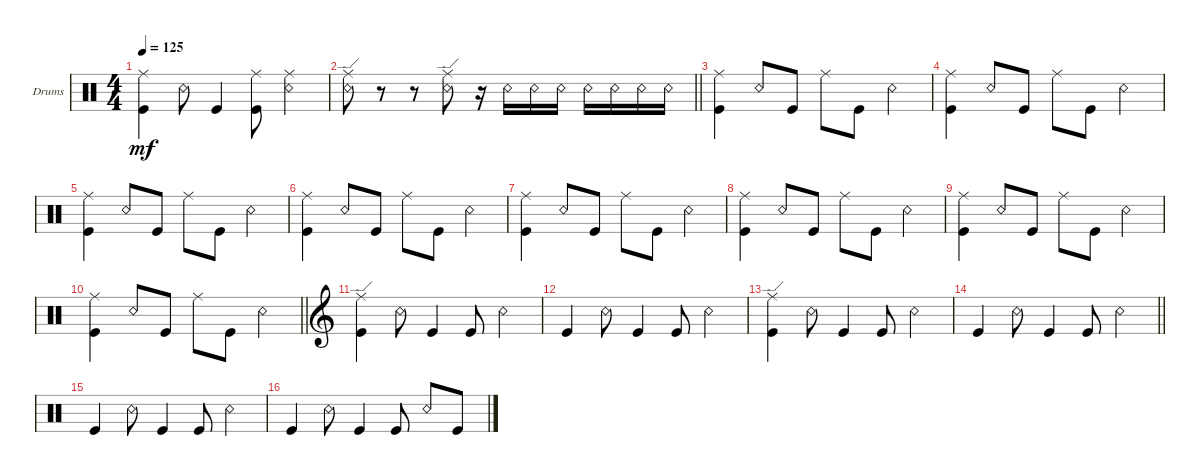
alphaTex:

\defaultSystemsLayout 4
\bracketExtendMode groupsimilarinstruments
\firstSystemTrackNameOrientation horizontal
\otherSystemsTrackNameOrientation horizontal
\track ("Drumkit" "Drums") {instrument percussion}
\staff {score}
\articulation defaults
\ts (4 4)
\tempo 125
\clef neutral
\ks c
("Kick (hit)" "Ride (middle)").4{dy mf} "Snare (rim shot)".8 "Kick (hit)".4 ("Kick (hit)" "Ride (middle)").8 ("Snare (rim shot)" "Ride (middle)").4 |
\barLineRight lightlight
("Snare (rim shot)" "Ride (edge)").8 r.8 r.8 ("Snare (rim shot)" "Ride (edge)").8 r.16 "Snare (rim shot)".16 "Snare (rim shot)".16 "Snare (rim shot)".16 "Snare (rim shot)".16 "Snare (rim shot)".16 "Snare (rim shot)".16 "Snare (rim shot)".16 |
("Kick (hit)" "Ride (middle)").4 "Snare (rim shot)".8 "Kick (hit)".8 "Ride (middle)".8 "Kick (hit)".8 "Snare (rim shot)".4 |
("Kick (hit)" "Ride (middle)").4 "Snare (rim shot)".8 "Kick (hit)".8 "Ride (middle)".8 "Kick (hit)".8 "Snare (rim shot)".4 |
("Kick (hit)" "Ride (middle)").4 "Snare (rim shot)".8 "Kick (hit)".8 "Ride (middle)".8 "Kick (hit)".8 "Snare (rim shot)".4 |
("Kick (hit)" "Ride (middle)").4 "Snare (rim shot)".8 "Kick (hit)".8 "Ride (middle)".8 "Kick (hit)".8 "Snare (rim shot)".4 |
("Kick (hit)" "Ride (middle)").4 "Snare (rim shot)".8 "Kick (hit)".8 "Ride (middle)".8 "Kick (hit)".8 "Snare (rim shot)".4 |
("Kick (hit)" "Ride (middle)").4 "Snare (rim shot)".8 "Kick (hit)".8 "Ride (middle)".8 "Kick (hit)".8 "Snare (rim shot)".4 |
("Kick (hit)" "Ride (middle)").4 "Snare (rim shot)".8 "Kick (hit)".8 "Ride (middle)".8 "Kick (hit)".8 "Snare (rim shot)".4 |
\barLineRight lightlight
("Kick (hit)" "Ride (middle)").4 "Snare (rim shot)".8 "Kick (hit)".8 "Ride (middle)".8 "Kick (hit)".8 "Snare (rim shot)".4 |
\clef g2
("Kick (hit)" "Ride (edge)").4 "Snare (rim shot)".8 "Kick (hit)".4 "Kick (hit)".8 "Snare (rim shot)".4 |
"Kick (hit)".4 "Snare (rim shot)".8 "Kick (hit)".4 "Kick (hit)".8 "Snare (rim shot)".4 |
("Kick (hit)" "Ride (edge)").4 "Snare (rim shot)".8 "Kick (hit)".4 "Kick (hit)".8 "Snare (rim shot)".4 |
\barLineRight lightlight "Kick (hit)".4 "Snare (rim shot)".8 "Kick (hit)".4 "Kick (hit)".8 "Snare (rim shot)".4
|
\clef neutral "Kick (hit)".4 "Snare (rim shot)".8 "Kick (hit)".4 "Kick (hit)".8 "Snare (rim shot)".4
|
"Kick (hit)".4 "Snare (rim shot)".8 "Kick (hit)".4 "Kick (hit)".8 "Snare (rim shot)".8 "Kick (hit)".8
